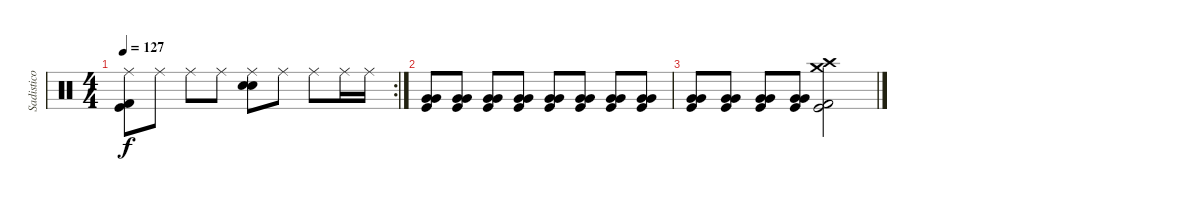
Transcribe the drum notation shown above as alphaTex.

\track ("Sadistico" "Sadistico") {instrument percussion}
\staff {score}
\articulation defaults
\rc 2
\ts (4 4)
\tempo 127
\clef neutral
\ks c
("Ride (middle)" "Kick (hit)" "Kick (hit) 2").8{dy f} "Ride (middle)".8 "Ride (middle)".8 "Ride (middle)".8 ("Ride (middle)" "Snare (hit) 2" "Snare (hit) 2").8 "Ride (middle)".8 "Ride (middle)".8 "Ride (middle)".16 "Ride (middle)".16 |
("Kick (hit)" "Very Low Tom (hit)" "Very Low Tom (hit)").8 ("Kick (hit)" "Very Low Tom (hit)" "Very Low Tom (hit)").8 ("Kick (hit)" "Very Low Tom (hit)" "Very Low Tom (hit)").8 ("Kick (hit)" "Very Low Tom (hit)" "Very Low Tom (hit)").8 ("Kick (hit)" "Very Low Tom (hit)" "Very Low Tom (hit)").8 ("Kick (hit)" "Very Low Tom (hit)" "Very Low Tom (hit)").8 ("Kick (hit)" "Very Low Tom (hit)" "Very Low Tom (hit)").8 ("Kick (hit)" "Very Low Tom (hit)" "Very Low Tom (hit)").8 |
("Kick (hit)" "Very Low Tom (hit)" "Very Low Tom (hit)").8 ("Kick (hit)" "Very Low Tom (hit)" "Very Low Tom (hit)").8 ("Kick (hit)" "Very Low Tom (hit)" "Very Low Tom (hit)").8 ("Kick (hit)" "Very Low Tom (hit)" "Very Low Tom (hit)").8 ("Crash medium (hit)" "Crash high (hit)" "Kick (hit)" "Kick (hit) 2").2
